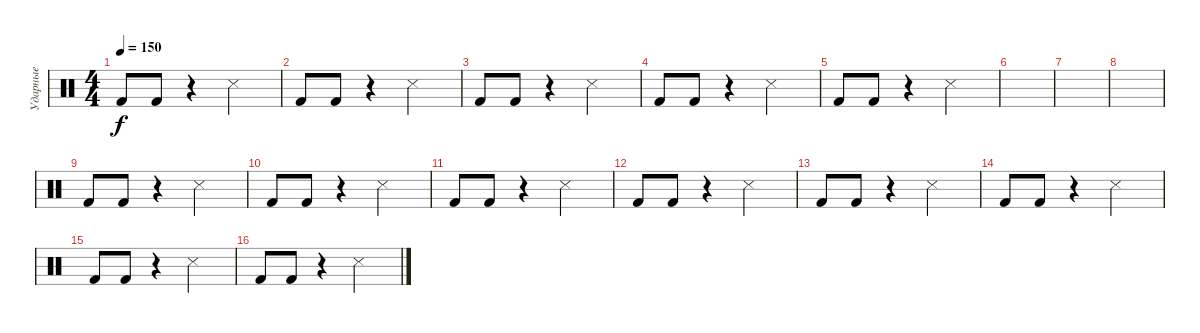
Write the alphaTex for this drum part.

\track ("Ударные" "Ударные") {instrument percussion}
\staff {score}
\articulation defaults
\ts (4 4)
\tempo 150
\clef neutral
\ks c "Kick (hit) 2".8{dy f} "Kick (hit) 2".8
r.4 "Snare (side stick) 3".2 |
"Kick (hit) 2".8 "Kick (hit) 2".8 r.4 "Snare (side stick) 3".2 |
"Kick (hit) 2".8 "Kick (hit) 2".8 r.4 "Snare (side stick) 3".2 |
"Kick (hit) 2".8 "Kick (hit) 2".8 r.4 "Snare (side stick) 3".2 |
"Kick (hit) 2".8 "Kick (hit) 2".8 r.4 "Snare (side stick) 3".2 |
|
|
|
"Kick (hit) 2".8 "Kick (hit) 2".8 r.4 "Snare (side stick) 3".2 |
"Kick (hit) 2".8 "Kick (hit) 2".8 r.4 "Snare (side stick) 3".2 |
"Kick (hit) 2".8 "Kick (hit) 2".8 r.4 "Snare (side stick) 3".2 |
"Kick (hit) 2".8 "Kick (hit) 2".8 r.4 "Snare (side stick) 3".2 |
"Kick (hit) 2".8 "Kick (hit) 2".8 r.4 "Snare (side stick) 3".2 |
"Kick (hit) 2".8 "Kick (hit) 2".8 r.4 "Snare (side stick) 3".2 |
"Kick (hit) 2".8 "Kick (hit) 2".8 r.4 "Snare (side stick) 3".2 |
"Kick (hit) 2".8 "Kick (hit) 2".8 r.4 "Snare (side stick) 3".2
